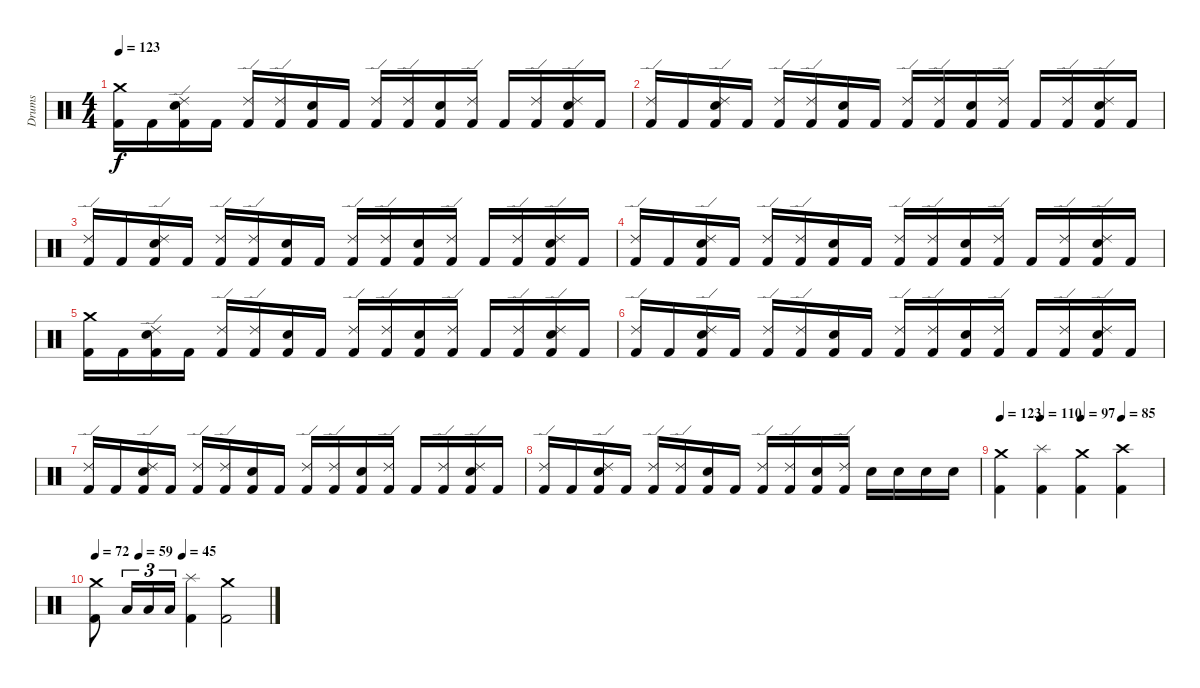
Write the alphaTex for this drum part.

\track ("Drums" "Drums") {instrument percussion}
\staff {score}
\articulation defaults
\ts (4 4)
\tempo 123
\clef neutral
\ks c
("Crash medium (hit)" "Kick (hit) 2").16{dy f} "Kick (hit) 2".16 ("Electric Snare (hit)" "Ride (edge) 2" "Kick (hit) 2").16 "Kick (hit) 2".16 ("Ride (edge) 2" "Kick (hit) 2").16 ("Ride (edge) 2" "Kick (hit) 2").16 ("Electric Snare (hit)" "Kick (hit) 2").16 "Kick (hit) 2".16 ("Ride (edge) 2" "Kick (hit) 2").16 ("Ride (edge) 2" "Kick (hit) 2").16 ("Electric Snare (hit)" "Kick (hit) 2").16 ("Ride (edge) 2" "Kick (hit) 2").16 "Kick (hit) 2".16 ("Ride (edge) 2" "Kick (hit) 2").16 ("Electric Snare (hit)" "Ride (edge) 2" "Kick (hit) 2").16 "Kick (hit) 2".16 |
("Ride (edge) 2" "Kick (hit) 2").16 "Kick (hit) 2".16 ("Electric Snare (hit)" "Ride (edge) 2" "Kick (hit) 2").16 "Kick (hit) 2".16 ("Ride (edge) 2" "Kick (hit) 2").16 ("Ride (edge) 2" "Kick (hit) 2").16 ("Electric Snare (hit)" "Kick (hit) 2").16 "Kick (hit) 2".16 ("Ride (edge) 2" "Kick (hit) 2").16 ("Ride (edge) 2" "Kick (hit) 2").16 ("Electric Snare (hit)" "Kick (hit) 2").16 ("Ride (edge) 2" "Kick (hit) 2").16 "Kick (hit) 2".16 ("Ride (edge) 2" "Kick (hit) 2").16 ("Electric Snare (hit)" "Ride (edge) 2" "Kick (hit) 2").16 "Kick (hit) 2".16 |
("Ride (edge) 2" "Kick (hit) 2").16 "Kick (hit) 2".16 ("Electric Snare (hit)" "Ride (edge) 2" "Kick (hit) 2").16 "Kick (hit) 2".16 ("Ride (edge) 2" "Kick (hit) 2").16 ("Ride (edge) 2" "Kick (hit) 2").16 ("Electric Snare (hit)" "Kick (hit) 2").16 "Kick (hit) 2".16 ("Ride (edge) 2" "Kick (hit) 2").16 ("Ride (edge) 2" "Kick (hit) 2").16 ("Electric Snare (hit)" "Kick (hit) 2").16 ("Ride (edge) 2" "Kick (hit) 2").16 "Kick (hit) 2".16 ("Ride (edge) 2" "Kick (hit) 2").16 ("Electric Snare (hit)" "Ride (edge) 2" "Kick (hit) 2").16 "Kick (hit) 2".16 |
("Ride (edge) 2" "Kick (hit) 2").16 "Kick (hit) 2".16 ("Electric Snare (hit)" "Ride (edge) 2" "Kick (hit) 2").16 "Kick (hit) 2".16 ("Ride (edge) 2" "Kick (hit) 2").16 ("Ride (edge) 2" "Kick (hit) 2").16 ("Electric Snare (hit)" "Kick (hit) 2").16 "Kick (hit) 2".16 ("Ride (edge) 2" "Kick (hit) 2").16 ("Ride (edge) 2" "Kick (hit) 2").16 ("Electric Snare (hit)" "Kick (hit) 2").16 ("Ride (edge) 2" "Kick (hit) 2").16 "Kick (hit) 2".16 ("Ride (edge) 2" "Kick (hit) 2").16 ("Electric Snare (hit)" "Ride (edge) 2" "Kick (hit) 2").16 "Kick (hit) 2".16 |
("Crash medium (hit)" "Kick (hit) 2").16 "Kick (hit) 2".16 ("Electric Snare (hit)" "Ride (edge) 2" "Kick (hit) 2").16 "Kick (hit) 2".16 ("Ride (edge) 2" "Kick (hit) 2").16 ("Ride (edge) 2" "Kick (hit) 2").16 ("Electric Snare (hit)" "Kick (hit) 2").16 "Kick (hit) 2".16 ("Ride (edge) 2" "Kick (hit) 2").16 ("Ride (edge) 2" "Kick (hit) 2").16 ("Electric Snare (hit)" "Kick (hit) 2").16 ("Ride (edge) 2" "Kick (hit) 2").16 "Kick (hit) 2".16 ("Ride (edge) 2" "Kick (hit) 2").16 ("Electric Snare (hit)" "Ride (edge) 2" "Kick (hit) 2").16 "Kick (hit) 2".16 |
("Ride (edge) 2" "Kick (hit) 2").16 "Kick (hit) 2".16 ("Electric Snare (hit)" "Ride (edge) 2" "Kick (hit) 2").16 "Kick (hit) 2".16 ("Ride (edge) 2" "Kick (hit) 2").16 ("Ride (edge) 2" "Kick (hit) 2").16 ("Electric Snare (hit)" "Kick (hit) 2").16 "Kick (hit) 2".16 ("Ride (edge) 2" "Kick (hit) 2").16 ("Ride (edge) 2" "Kick (hit) 2").16 ("Electric Snare (hit)" "Kick (hit) 2").16 ("Ride (edge) 2" "Kick (hit) 2").16 "Kick (hit) 2".16 ("Ride (edge) 2" "Kick (hit) 2").16 ("Electric Snare (hit)" "Ride (edge) 2" "Kick (hit) 2").16 "Kick (hit) 2".16 |
("Ride (edge) 2" "Kick (hit) 2").16 "Kick (hit) 2".16 ("Electric Snare (hit)" "Ride (edge) 2" "Kick (hit) 2").16 "Kick (hit) 2".16 ("Ride (edge) 2" "Kick (hit) 2").16 ("Ride (edge) 2" "Kick (hit) 2").16 ("Electric Snare (hit)" "Kick (hit) 2").16 "Kick (hit) 2".16 ("Ride (edge) 2" "Kick (hit) 2").16 ("Ride (edge) 2" "Kick (hit) 2").16 ("Electric Snare (hit)" "Kick (hit) 2").16 ("Ride (edge) 2" "Kick (hit) 2").16 "Kick (hit) 2".16 ("Ride (edge) 2" "Kick (hit) 2").16 ("Electric Snare (hit)" "Ride (edge) 2" "Kick (hit) 2").16 "Kick (hit) 2".16 |
("Ride (edge) 2" "Kick (hit) 2").16 "Kick (hit) 2".16 ("Electric Snare (hit)" "Ride (edge) 2" "Kick (hit) 2").16 "Kick (hit) 2".16 ("Ride (edge) 2" "Kick (hit) 2").16 ("Ride (edge) 2" "Kick (hit) 2").16 ("Electric Snare (hit)" "Kick (hit) 2").16 "Kick (hit) 2".16 ("Ride (edge) 2" "Kick (hit) 2").16 ("Ride (edge) 2" "Kick (hit) 2").16 ("Electric Snare (hit)" "Kick (hit) 2").16 ("Ride (edge) 2" "Kick (hit) 2").16 "Electric Snare (hit)".16 "Electric Snare (hit)".16 "Electric Snare (hit)".16 "Electric Snare (hit)".16 |
\tempo 123
\tempo (110 0.25)
\tempo (97 0.5)
\tempo (85 0.75)
("Crash medium (hit)" "Kick (hit) 2").4 ("Splash (hit)" "Kick (hit) 2").4 ("Crash medium (hit)" "Kick (hit) 2").4 ("Crash high (hit)" "Kick (hit) 2").4 |
\tempo 72
\tempo (59 0.25)
\tempo (45 0.5)
("Crash medium (hit)" "Kick (hit) 2").8 "Low Tom (hit)".16{tu (3 2)} "Low Tom (hit)".16{tu (3 2)} "Low Tom (hit)".16{tu (3 2)} ("Splash (hit)" "Kick (hit) 2").4 ("Crash medium (hit)" "Kick (hit) 2").2
